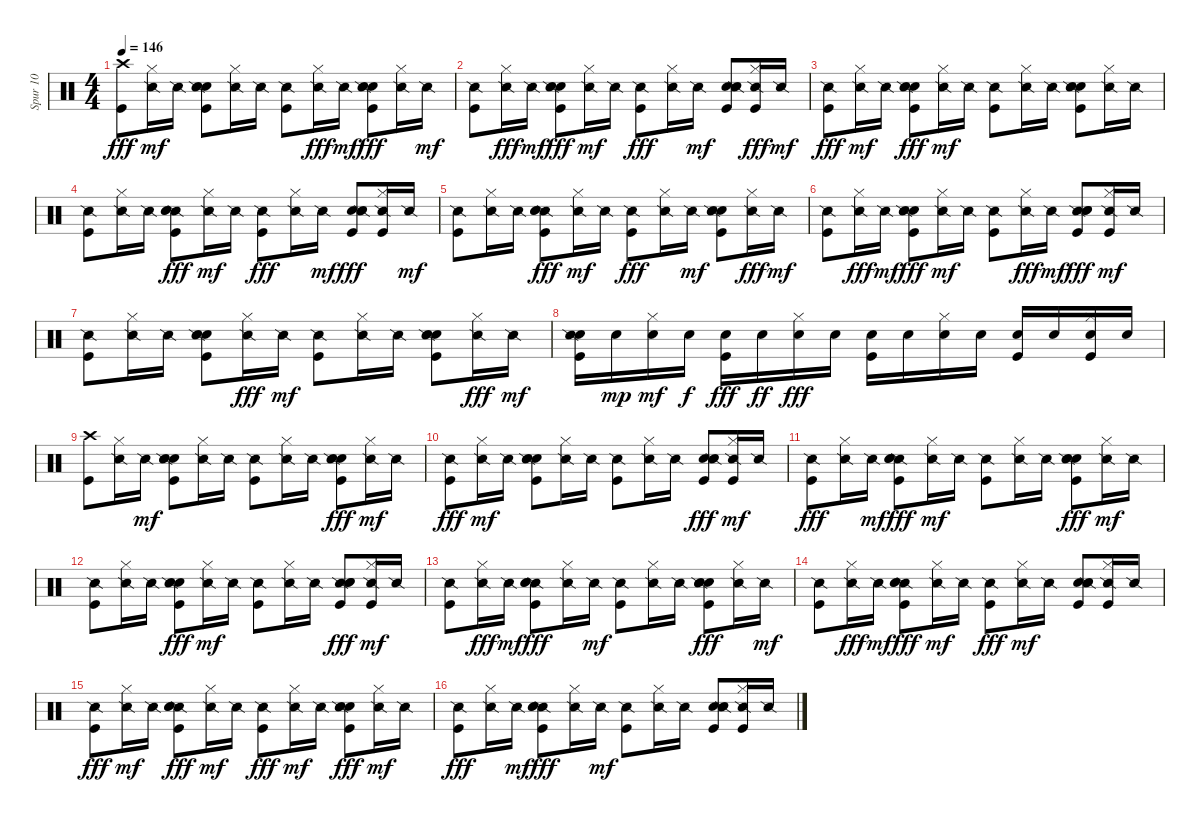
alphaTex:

\track ("Spur 10" "Spur 10") {instrument percussion}
\staff {score}
\articulation defaults
\ts (4 4)
\tempo 146
\clef neutral
\ks c
("Kick (hit)" "Crash high (hit)").8{dy fff} ("Hi-Hat (closed)" "Snare (side stick) 2").16{dy mf} "Snare (side stick) 2".16 ("Kick (hit)" "Hand Clap (hit)" "Snare (side stick) 2" "Electric Snare (hit)").8 ("Hi-Hat (closed)" "Snare (side stick) 2").16 "Snare (side stick) 2".16 ("Kick (hit)" "Snare (side stick) 2").8 ("Snare (side stick) 2" "Hi-Hat (closed)").16{dy fff} "Snare (side stick) 2".16{dy mf} ("Hand Clap (hit)" "Electric Snare (hit)" "Snare (side stick) 2" "Kick (hit)").8{dy fff} ("Snare (side stick) 2" "Hi-Hat (closed)").16 "Snare (side stick) 2".16{dy mf} |
("Kick (hit)" "Snare (side stick) 2").8 ("Snare (side stick) 2" "Hi-Hat (closed)").16{dy fff} "Snare (side stick) 2".16{dy mf} ("Electric Snare (hit)" "Snare (side stick) 2" "Hand Clap (hit)" "Kick (hit)").8{dy fff} ("Hi-Hat (closed)" "Snare (side stick) 2").16{dy mf} "Snare (side stick) 2".16 ("Snare (side stick) 2" "Kick (hit)").8{dy fff} ("Snare (side stick) 2" "Hi-Hat (closed)").16 "Snare (side stick) 2".16{dy mf} ("Hand Clap (hit)" "Kick (hit)" "Snare (side stick) 2" "Electric Snare (hit)").8 ("Kick (hit)" "Snare (side stick) 2" "Hi-Hat (closed)").16{dy fff} "Snare (side stick) 2".16{dy mf} |
("Snare (side stick) 2" "Kick (hit)").8{dy fff} ("Hi-Hat (closed)" "Snare (side stick) 2").16{dy mf} "Snare (side stick) 2".16 ("Hand Clap (hit)" "Snare (side stick) 2" "Kick (hit)" "Electric Snare (hit)").8{dy fff} ("Hi-Hat (closed)" "Snare (side stick) 2").16{dy mf} "Snare (side stick) 2".16 ("Kick (hit)" "Snare (side stick) 2").8 ("Hi-Hat (closed)" "Snare (side stick) 2").16 "Snare (side stick) 2".16 ("Electric Snare (hit)" "Hand Clap (hit)" "Kick (hit)" "Snare (side stick) 2").8 ("Hi-Hat (closed)" "Snare (side stick) 2").16 "Snare (side stick) 2".16 |
("Kick (hit)" "Snare (side stick) 2").8 ("Hi-Hat (closed)" "Snare (side stick) 2").16 "Snare (side stick) 2".16 ("Snare (side stick) 2" "Kick (hit)" "Electric Snare (hit)" "Hand Clap (hit)").8{dy fff} ("Hi-Hat (closed)" "Snare (side stick) 2").16{dy mf} "Snare (side stick) 2".16 ("Snare (side stick) 2" "Kick (hit)").8{dy fff} ("Snare (side stick) 2" "Hi-Hat (closed)").16 "Snare (side stick) 2".16{dy mf} ("Electric Snare (hit)" "Kick (hit)" "Snare (side stick) 2" "Hand Clap (hit)").8{dy fff} ("Snare (side stick) 2" "Kick (hit)" "Hi-Hat (closed)").16 "Snare (side stick) 2".16{dy mf} |
("Kick (hit)" "Snare (side stick) 2").8 ("Hi-Hat (closed)" "Snare (side stick) 2").16 "Snare (side stick) 2".16 ("Snare (side stick) 2" "Electric Snare (hit)" "Hand Clap (hit)" "Kick (hit)").8{dy fff} ("Hi-Hat (closed)" "Snare (side stick) 2").16{dy mf} "Snare (side stick) 2".16 ("Snare (side stick) 2" "Kick (hit)").8{dy fff} ("Snare (side stick) 2" "Hi-Hat (closed)").16 "Snare (side stick) 2".16{dy mf} ("Hand Clap (hit)" "Electric Snare (hit)" "Kick (hit)" "Snare (side stick) 2").8 ("Snare (side stick) 2" "Hi-Hat (closed)").16{dy fff} "Snare (side stick) 2".16{dy mf} |
("Kick (hit)" "Snare (side stick) 2").8 ("Snare (side stick) 2" "Hi-Hat (closed)").16{dy fff} "Snare (side stick) 2".16{dy mf} ("Electric Snare (hit)" "Hand Clap (hit)" "Snare (side stick) 2" "Kick (hit)").8{dy fff} ("Hi-Hat (closed)" "Snare (side stick) 2").16{dy mf} "Snare (side stick) 2".16 ("Kick (hit)" "Snare (side stick) 2").8 ("Snare (side stick) 2" "Hi-Hat (closed)").16{dy fff} "Snare (side stick) 2".16{dy mf} ("Snare (side stick) 2" "Kick (hit)" "Hand Clap (hit)" "Electric Snare (hit)").8{dy fff} ("Kick (hit)" "Hi-Hat (closed)" "Snare (side stick) 2").16{dy mf} "Snare (side stick) 2".16 |
("Kick (hit)" "Snare (side stick) 2").8 ("Hi-Hat (closed)" "Snare (side stick) 2").16 "Snare (side stick) 2".16 ("Electric Snare (hit)" "Hand Clap (hit)" "Kick (hit)" "Snare (side stick) 2").8 ("Snare (side stick) 2" "Hi-Hat (closed)").16{dy fff} "Snare (side stick) 2".16{dy mf} ("Kick (hit)" "Snare (side stick) 2").8 ("Hi-Hat (closed)" "Snare (side stick) 2").16 "Snare (side stick) 2".16 ("Kick (hit)" "Hand Clap (hit)" "Electric Snare (hit)" "Snare (side stick) 2").8 ("Snare (side stick) 2" "Hi-Hat (closed)").16{dy fff} "Snare (side stick) 2".16{dy mf} |
("Kick (hit)" "Snare (hit) 2" "Snare (side stick) 2").16 "Snare (hit) 2".16{dy mp} ("Hi-Hat (closed)" "Snare (hit) 2").16{dy mf} "Snare (hit) 2".16{dy f} ("Kick (hit)" "Snare (hit) 2").16{dy fff} "Snare (hit) 2".16{dy ff} ("Snare (hit) 2" "Hi-Hat (closed)").16{dy fff} "Snare (hit) 2".16 ("Kick (hit)" "Snare (hit) 2").16 "Snare (hit) 2".16 ("Hi-Hat (closed)" "Snare (hit) 2").16 "Snare (hit) 2".16 ("Kick (hit)" "Snare (hit) 2").16 "Snare (hit) 2".16 ("Snare (hit) 2" "Hi-Hat (closed)" "Kick (hit)").16 "Snare (hit) 2".16 |
("Crash high (hit)" "Kick (hit)").8 ("Snare (side stick) 2" "Hi-Hat (closed)").16 "Snare (side stick) 2".16{dy mf} ("Electric Snare (hit)" "Hand Clap (hit)" "Kick (hit)" "Snare (side stick) 2").8 ("Hi-Hat (closed)" "Snare (side stick) 2").16 "Snare (side stick) 2".16 ("Kick (hit)" "Snare (side stick) 2").8 ("Hi-Hat (closed)" "Snare (side stick) 2").16 "Snare (side stick) 2".16 ("Electric Snare (hit)" "Snare (side stick) 2" "Hand Clap (hit)" "Kick (hit)").8{dy fff} ("Hi-Hat (closed)" "Snare (side stick) 2").16{dy mf} "Snare (side stick) 2".16 |
("Snare (side stick) 2" "Kick (hit)").8{dy fff} ("Hi-Hat (closed)" "Snare (side stick) 2").16{dy mf} "Snare (side stick) 2".16 ("Kick (hit)" "Hand Clap (hit)" "Electric Snare (hit)" "Snare (side stick) 2").8 ("Hi-Hat (closed)" "Snare (side stick) 2").16 "Snare (side stick) 2".16 ("Kick (hit)" "Snare (side stick) 2").8 ("Hi-Hat (closed)" "Snare (side stick) 2").16 "Snare (side stick) 2".16 ("Hand Clap (hit)" "Snare (side stick) 2" "Electric Snare (hit)" "Kick (hit)").8{dy fff} ("Hi-Hat (closed)" "Kick (hit)" "Snare (side stick) 2").16{dy mf} "Snare (side stick) 2".16 |
("Snare (side stick) 2" "Kick (hit)").8{dy fff} ("Snare (side stick) 2" "Hi-Hat (closed)").16 "Snare (side stick) 2".16{dy mf} ("Kick (hit)" "Snare (side stick) 2" "Hand Clap (hit)" "Electric Snare (hit)").8{dy fff} ("Hi-Hat (closed)" "Snare (side stick) 2").16{dy mf} "Snare (side stick) 2".16 ("Kick (hit)" "Snare (side stick) 2").8 ("Hi-Hat (closed)" "Snare (side stick) 2").16 "Snare (side stick) 2".16 ("Electric Snare (hit)" "Hand Clap (hit)" "Snare (side stick) 2" "Kick (hit)").8{dy fff} ("Hi-Hat (closed)" "Snare (side stick) 2").16{dy mf} "Snare (side stick) 2".16 |
("Kick (hit)" "Snare (side stick) 2").8 ("Hi-Hat (closed)" "Snare (side stick) 2").16 "Snare (side stick) 2".16 ("Hand Clap (hit)" "Electric Snare (hit)" "Snare (side stick) 2" "Kick (hit)").8{dy fff} ("Hi-Hat (closed)" "Snare (side stick) 2").16{dy mf} "Snare (side stick) 2".16 ("Kick (hit)" "Snare (side stick) 2").8 ("Hi-Hat (closed)" "Snare (side stick) 2").16 "Snare (side stick) 2".16 ("Snare (side stick) 2" "Kick (hit)" "Electric Snare (hit)" "Hand Clap (hit)").8{dy fff} ("Hi-Hat (closed)" "Kick (hit)" "Snare (side stick) 2").16{dy mf} "Snare (side stick) 2".16 |
("Kick (hit)" "Snare (side stick) 2").8 ("Snare (side stick) 2" "Hi-Hat (closed)").16{dy fff} "Snare (side stick) 2".16{dy mf} ("Snare (side stick) 2" "Electric Snare (hit)" "Hand Clap (hit)" "Kick (hit)").8{dy fff} ("Snare (side stick) 2" "Hi-Hat (closed)").16 "Snare (side stick) 2".16{dy mf} ("Kick (hit)" "Snare (side stick) 2").8 ("Hi-Hat (closed)" "Snare (side stick) 2").16 "Snare (side stick) 2".16 ("Electric Snare (hit)" "Snare (side stick) 2" "Kick (hit)" "Hand Clap (hit)").8{dy fff} ("Snare (side stick) 2" "Hi-Hat (closed)").16 "Snare (side stick) 2".16{dy mf} |
("Kick (hit)" "Snare (side stick) 2").8 ("Snare (side stick) 2" "Hi-Hat (closed)").16{dy fff} "Snare (side stick) 2".16{dy mf} ("Snare (side stick) 2" "Kick (hit)" "Electric Snare (hit)" "Hand Clap (hit)").8{dy fff} ("Hi-Hat (closed)" "Snare (side stick) 2").16{dy mf} "Snare (side stick) 2".16 ("Snare (side stick) 2" "Kick (hit)").8{dy fff} ("Hi-Hat (closed)" "Snare (side stick) 2").16{dy mf} "Snare (side stick) 2".16 ("Kick (hit)" "Electric Snare (hit)" "Hand Clap (hit)" "Snare (side stick) 2").8 ("Hi-Hat (closed)" "Kick (hit)" "Snare (side stick) 2").16 "Snare (side stick) 2".16 |
("Snare (side stick) 2" "Kick (hit)").8{dy fff} ("Hi-Hat (closed)" "Snare (side stick) 2").16{dy mf} "Snare (side stick) 2".16 ("Kick (hit)" "Snare (side stick) 2" "Hand Clap (hit)" "Electric Snare (hit)").8{dy fff} ("Hi-Hat (closed)" "Snare (side stick) 2").16{dy mf} "Snare (side stick) 2".16 ("Snare (side stick) 2" "Kick (hit)").8{dy fff} ("Hi-Hat (closed)" "Snare (side stick) 2").16{dy mf} "Snare (side stick) 2".16 ("Electric Snare (hit)" "Snare (side stick) 2" "Kick (hit)" "Hand Clap (hit)").8{dy fff} ("Hi-Hat (closed)" "Snare (side stick) 2").16{dy mf} "Snare (side stick) 2".16 |
("Snare (side stick) 2" "Kick (hit)").8{dy fff} ("Snare (side stick) 2" "Hi-Hat (closed)").16 "Snare (side stick) 2".16{dy mf} ("Snare (side stick) 2" "Hand Clap (hit)" "Electric Snare (hit)" "Kick (hit)").8{dy fff} ("Snare (side stick) 2" "Hi-Hat (closed)").16 "Snare (side stick) 2".16{dy mf} ("Kick (hit)" "Snare (side stick) 2").8 ("Hi-Hat (closed)" "Snare (side stick) 2").16 "Snare (side stick) 2".16 ("Hand Clap (hit)" "Electric Snare (hit)" "Kick (hit)" "Snare (side stick) 2").8 ("Kick (hit)" "Hi-Hat (closed)" "Snare (side stick) 2").16 "Snare (side stick) 2".16
